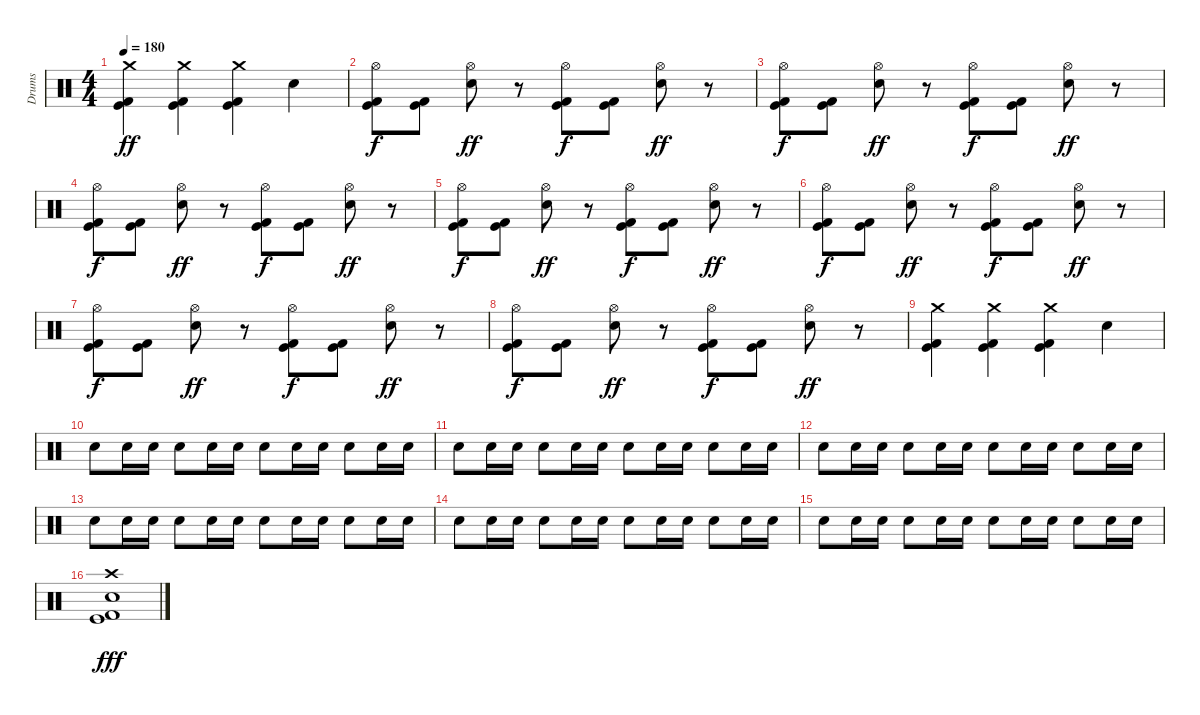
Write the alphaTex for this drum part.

\track ("Drums" "Drums") {instrument percussion}
\staff {score}
\articulation defaults
\ts (4 4)
\tempo 180
\clef neutral
\ks c
("Crash medium (hit)" "Kick (hit)" "Kick (hit) 2").4{dy ff} ("Crash medium (hit)" "Kick (hit)" "Kick (hit) 2").4 ("Crash medium (hit)" "Kick (hit)" "Kick (hit) 2").4 "Snare (hit) 2".4 |
("Hi-Hat (open)" "Kick (hit)" "Kick (hit) 2").8{dy f} ("Kick (hit)" "Kick (hit) 2").8 ("Hi-Hat (open)" "Snare (hit) 2").8{dy ff} r.8 ("Hi-Hat (open)" "Kick (hit)" "Kick (hit) 2").8{dy f} ("Kick (hit)" "Kick (hit) 2").8 ("Hi-Hat (open)" "Snare (hit) 2").8{dy ff} r.8 |
("Hi-Hat (open)" "Kick (hit)" "Kick (hit) 2").8{dy f} ("Kick (hit)" "Kick (hit) 2").8 ("Hi-Hat (open)" "Snare (hit) 2").8{dy ff} r.8 ("Hi-Hat (open)" "Kick (hit)" "Kick (hit) 2").8{dy f} ("Kick (hit)" "Kick (hit) 2").8 ("Hi-Hat (open)" "Snare (hit) 2").8{dy ff} r.8 |
("Hi-Hat (open)" "Kick (hit)" "Kick (hit) 2").8{dy f} ("Kick (hit)" "Kick (hit) 2").8 ("Hi-Hat (open)" "Snare (hit) 2").8{dy ff} r.8 ("Hi-Hat (open)" "Kick (hit)" "Kick (hit) 2").8{dy f} ("Kick (hit)" "Kick (hit) 2").8 ("Hi-Hat (open)" "Snare (hit) 2").8{dy ff} r.8 |
("Hi-Hat (open)" "Kick (hit)" "Kick (hit) 2").8{dy f} ("Kick (hit)" "Kick (hit) 2").8 ("Hi-Hat (open)" "Snare (hit) 2").8{dy ff} r.8 ("Hi-Hat (open)" "Kick (hit)" "Kick (hit) 2").8{dy f} ("Kick (hit)" "Kick (hit) 2").8 ("Hi-Hat (open)" "Snare (hit) 2").8{dy ff} r.8 |
("Hi-Hat (open)" "Kick (hit)" "Kick (hit) 2").8{dy f} ("Kick (hit)" "Kick (hit) 2").8 ("Hi-Hat (open)" "Snare (hit) 2").8{dy ff} r.8 ("Hi-Hat (open)" "Kick (hit)" "Kick (hit) 2").8{dy f} ("Kick (hit)" "Kick (hit) 2").8 ("Hi-Hat (open)" "Snare (hit) 2").8{dy ff} r.8 |
("Hi-Hat (open)" "Kick (hit)" "Kick (hit) 2").8{dy f} ("Kick (hit)" "Kick (hit) 2").8 ("Hi-Hat (open)" "Snare (hit) 2").8{dy ff} r.8 ("Hi-Hat (open)" "Kick (hit)" "Kick (hit) 2").8{dy f} ("Kick (hit)" "Kick (hit) 2").8 ("Hi-Hat (open)" "Snare (hit) 2").8{dy ff} r.8 |
("Hi-Hat (open)" "Kick (hit)" "Kick (hit) 2").8{dy f} ("Kick (hit)" "Kick (hit) 2").8 ("Hi-Hat (open)" "Snare (hit) 2").8{dy ff} r.8 ("Hi-Hat (open)" "Kick (hit)" "Kick (hit) 2").8{dy f} ("Kick (hit)" "Kick (hit) 2").8 ("Hi-Hat (open)" "Snare (hit) 2").8{dy ff} r.8 |
("Crash medium (hit)" "Kick (hit)" "Kick (hit) 2").4 ("Crash medium (hit)" "Kick (hit)" "Kick (hit) 2").4 ("Crash medium (hit)" "Kick (hit)" "Kick (hit) 2").4 "Snare (hit) 2".4 |
"Snare (hit) 2".8 "Snare (hit) 2".16 "Snare (hit) 2".16 "Snare (hit) 2".8 "Snare (hit) 2".16 "Snare (hit) 2".16 "Snare (hit) 2".8 "Snare (hit) 2".16 "Snare (hit) 2".16 "Snare (hit) 2".8 "Snare (hit) 2".16 "Snare (hit) 2".16 |
"Snare (hit) 2".8 "Snare (hit) 2".16 "Snare (hit) 2".16 "Snare (hit) 2".8 "Snare (hit) 2".16 "Snare (hit) 2".16 "Snare (hit) 2".8 "Snare (hit) 2".16 "Snare (hit) 2".16 "Snare (hit) 2".8 "Snare (hit) 2".16 "Snare (hit) 2".16 |
"Snare (hit) 2".8 "Snare (hit) 2".16 "Snare (hit) 2".16 "Snare (hit) 2".8 "Snare (hit) 2".16 "Snare (hit) 2".16 "Snare (hit) 2".8 "Snare (hit) 2".16 "Snare (hit) 2".16 "Snare (hit) 2".8 "Snare (hit) 2".16 "Snare (hit) 2".16 |
"Snare (hit) 2".8 "Snare (hit) 2".16 "Snare (hit) 2".16 "Snare (hit) 2".8 "Snare (hit) 2".16 "Snare (hit) 2".16 "Snare (hit) 2".8 "Snare (hit) 2".16 "Snare (hit) 2".16 "Snare (hit) 2".8 "Snare (hit) 2".16 "Snare (hit) 2".16 |
"Snare (hit) 2".8 "Snare (hit) 2".16 "Snare (hit) 2".16 "Snare (hit) 2".8 "Snare (hit) 2".16 "Snare (hit) 2".16 "Snare (hit) 2".8 "Snare (hit) 2".16 "Snare (hit) 2".16 "Snare (hit) 2".8 "Snare (hit) 2".16 "Snare (hit) 2".16 |
"Snare (hit) 2".8 "Snare (hit) 2".16 "Snare (hit) 2".16 "Snare (hit) 2".8 "Snare (hit) 2".16 "Snare (hit) 2".16 "Snare (hit) 2".8 "Snare (hit) 2".16 "Snare (hit) 2".16 "Snare (hit) 2".8 "Snare (hit) 2".16 "Snare (hit) 2".16 |
("Crash high (hit)" "Snare (hit) 2" "Kick (hit)" "Kick (hit) 2").1{dy fff}
